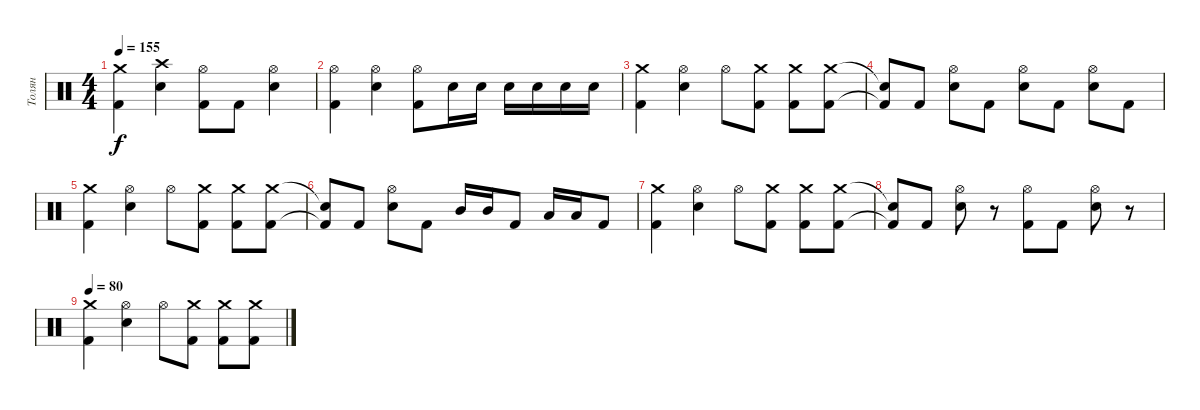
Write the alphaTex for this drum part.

\track ("Толян" "Толян") {instrument percussion}
\staff {score}
\articulation defaults
\ts (4 4)
\tempo 155
\clef neutral
\ks c
("Kick (hit) 2" "Crash medium (hit)").4{dy f} ("Electric Snare (hit)" "Crash high (hit)").4 ("Kick (hit) 2" "Hi-Hat (open)").8 "Kick (hit) 2".8 ("Electric Snare (hit)" "Hi-Hat (open)").4 |
("Kick (hit) 2" "Hi-Hat (open)").4 ("Electric Snare (hit)" "Hi-Hat (open)").4 ("Kick (hit) 2" "Hi-Hat (open)").8 "Electric Snare (hit)".16 "Electric Snare (hit)".16 "Electric Snare (hit)".16 "Electric Snare (hit)".16 "Electric Snare (hit)".16 "Electric Snare (hit)".16 |
("Kick (hit) 2" "Crash medium (hit)").4 ("Electric Snare (hit)" "Hi-Hat (open)").4 "Hi-Hat (open)".8 ("Kick (hit) 2" "Crash medium (hit)").8 ("Kick (hit) 2" "Crash medium (hit)").8 ("Kick (hit) 2" "Crash medium (hit)").8 |
("Kick (hit) 2"{t} "Snare (hit)"{t}).8 "Kick (hit) 2".8 ("Electric Snare (hit)" "Hi-Hat (open)").8 "Kick (hit) 2".8 ("Electric Snare (hit)" "Hi-Hat (open)").8 "Kick (hit) 2".8 ("Electric Snare (hit)" "Hi-Hat (open)").8 "Kick (hit) 2".8 |
("Kick (hit) 2" "Crash medium (hit)").4 ("Electric Snare (hit)" "Hi-Hat (open)").4 "Hi-Hat (open)".8 ("Kick (hit) 2" "Crash medium (hit)").8 ("Kick (hit) 2" "Crash medium (hit)").8 ("Kick (hit) 2" "Crash medium (hit)").8 |
("Kick (hit) 2"{t} "Snare (hit)"{t}).8 "Kick (hit) 2".8 ("Electric Snare (hit)" "Hi-Hat (open)").8 "Kick (hit) 2".8 "Mid Tom (hit)".16 "Mid Tom (hit)".16 "Kick (hit) 2".8 "Low Tom (hit)".16 "Low Tom (hit)".16 "Kick (hit) 2".8 |
("Kick (hit) 2" "Crash medium (hit)").4 ("Electric Snare (hit)" "Hi-Hat (open)").4 "Hi-Hat (open)".8 ("Kick (hit) 2" "Crash medium (hit)").8 ("Kick (hit) 2" "Crash medium (hit)").8 ("Kick (hit) 2" "Crash medium (hit)").8 |
("Kick (hit) 2"{t} "Snare (hit)"{t}).8 "Kick (hit) 2".8 ("Electric Snare (hit)" "Hi-Hat (open)").8 r.8 ("Kick (hit) 2" "Hi-Hat (open)").8 "Kick (hit) 2".8 ("Electric Snare (hit)" "Hi-Hat (open)").8 r.8 |
\tempo 80
("Kick (hit) 2" "Crash medium (hit)").4 ("Electric Snare (hit)" "Hi-Hat (open)").4 "Hi-Hat (open)".8 ("Kick (hit) 2" "Crash medium (hit)").8 ("Kick (hit) 2" "Crash medium (hit)").8 ("Kick (hit) 2" "Crash medium (hit)").8
